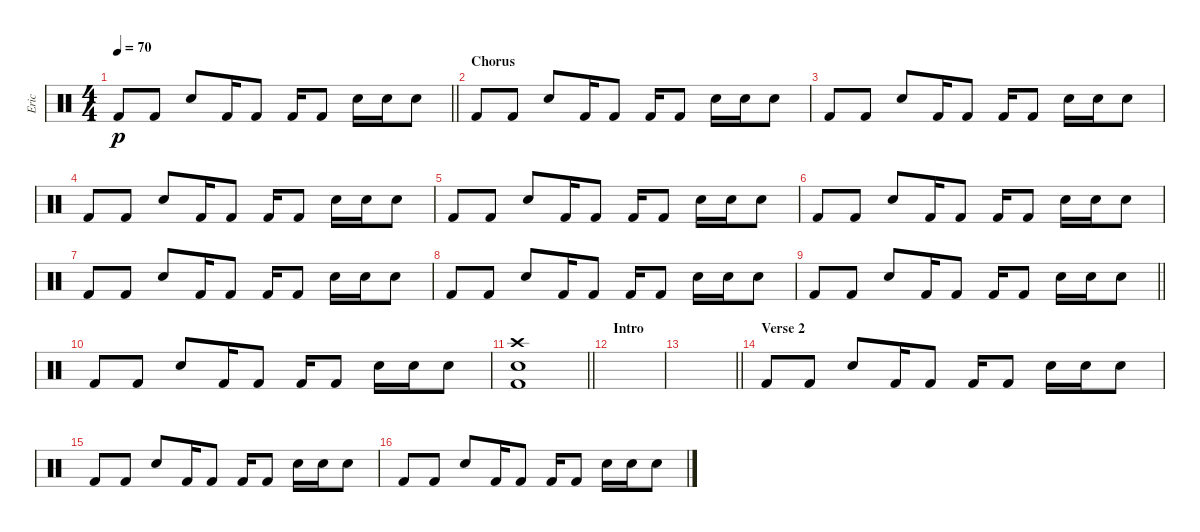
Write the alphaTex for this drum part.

\track ("Eric" "Eric") {instrument percussion}
\staff {score}
\articulation defaults
\ts (4 4)
\tempo 70
\clef neutral
\barLineRight lightlight
\ks c "Kick (hit) 2".8{dy p} "Kick (hit) 2".8 "Electric Snare (hit)".8 "Kick (hit) 2".16 "Kick (hit) 2".8 "Kick (hit) 2".16 "Kick (hit) 2".8 "Electric Snare (hit)".16 "Electric Snare (hit)".16 "Electric Snare (hit)".8
|
\section ("" "Chorus")
"Kick (hit) 2".8 "Kick (hit) 2".8 "Electric Snare (hit)".8 "Kick (hit) 2".16 "Kick (hit) 2".8 "Kick (hit) 2".16 "Kick (hit) 2".8 "Electric Snare (hit)".16 "Electric Snare (hit)".16 "Electric Snare (hit)".8 |
"Kick (hit) 2".8 "Kick (hit) 2".8 "Electric Snare (hit)".8 "Kick (hit) 2".16 "Kick (hit) 2".8 "Kick (hit) 2".16 "Kick (hit) 2".8 "Electric Snare (hit)".16 "Electric Snare (hit)".16 "Electric Snare (hit)".8 |
"Kick (hit) 2".8 "Kick (hit) 2".8 "Electric Snare (hit)".8 "Kick (hit) 2".16 "Kick (hit) 2".8 "Kick (hit) 2".16 "Kick (hit) 2".8 "Electric Snare (hit)".16 "Electric Snare (hit)".16 "Electric Snare (hit)".8 |
"Kick (hit) 2".8 "Kick (hit) 2".8 "Electric Snare (hit)".8 "Kick (hit) 2".16 "Kick (hit) 2".8 "Kick (hit) 2".16 "Kick (hit) 2".8 "Electric Snare (hit)".16 "Electric Snare (hit)".16 "Electric Snare (hit)".8 |
"Kick (hit) 2".8 "Kick (hit) 2".8 "Electric Snare (hit)".8 "Kick (hit) 2".16 "Kick (hit) 2".8 "Kick (hit) 2".16 "Kick (hit) 2".8 "Electric Snare (hit)".16 "Electric Snare (hit)".16 "Electric Snare (hit)".8 |
"Kick (hit) 2".8 "Kick (hit) 2".8 "Electric Snare (hit)".8 "Kick (hit) 2".16 "Kick (hit) 2".8 "Kick (hit) 2".16 "Kick (hit) 2".8 "Electric Snare (hit)".16 "Electric Snare (hit)".16 "Electric Snare (hit)".8 |
"Kick (hit) 2".8 "Kick (hit) 2".8 "Electric Snare (hit)".8 "Kick (hit) 2".16 "Kick (hit) 2".8 "Kick (hit) 2".16 "Kick (hit) 2".8 "Electric Snare (hit)".16 "Electric Snare (hit)".16 "Electric Snare (hit)".8 |
\barLineRight lightlight "Kick (hit) 2".8 "Kick (hit) 2".8 "Electric Snare (hit)".8 "Kick (hit) 2".16 "Kick (hit) 2".8 "Kick (hit) 2".16 "Kick (hit) 2".8 "Electric Snare (hit)".16 "Electric Snare (hit)".16 "Electric Snare (hit)".8
|
"Kick (hit) 2".8 "Kick (hit) 2".8 "Electric Snare (hit)".8 "Kick (hit) 2".16 "Kick (hit) 2".8 "Kick (hit) 2".16 "Kick (hit) 2".8 "Electric Snare (hit)".16 "Electric Snare (hit)".16 "Electric Snare (hit)".8 |
\barLineRight lightlight
("Crash high (hit)" "Electric Snare (hit)" "Kick (hit) 2").1 |
\section ("" "Intro")
|
\barLineRight lightlight
|
\section ("" "Verse 2")
"Kick (hit) 2".8 "Kick (hit) 2".8 "Electric Snare (hit)".8 "Kick (hit) 2".16 "Kick (hit) 2".8 "Kick (hit) 2".16 "Kick (hit) 2".8 "Electric Snare (hit)".16 "Electric Snare (hit)".16 "Electric Snare (hit)".8 |
"Kick (hit) 2".8 "Kick (hit) 2".8 "Electric Snare (hit)".8 "Kick (hit) 2".16 "Kick (hit) 2".8 "Kick (hit) 2".16 "Kick (hit) 2".8 "Electric Snare (hit)".16 "Electric Snare (hit)".16 "Electric Snare (hit)".8 |
"Kick (hit) 2".8 "Kick (hit) 2".8 "Electric Snare (hit)".8 "Kick (hit) 2".16 "Kick (hit) 2".8 "Kick (hit) 2".16 "Kick (hit) 2".8 "Electric Snare (hit)".16 "Electric Snare (hit)".16 "Electric Snare (hit)".8
